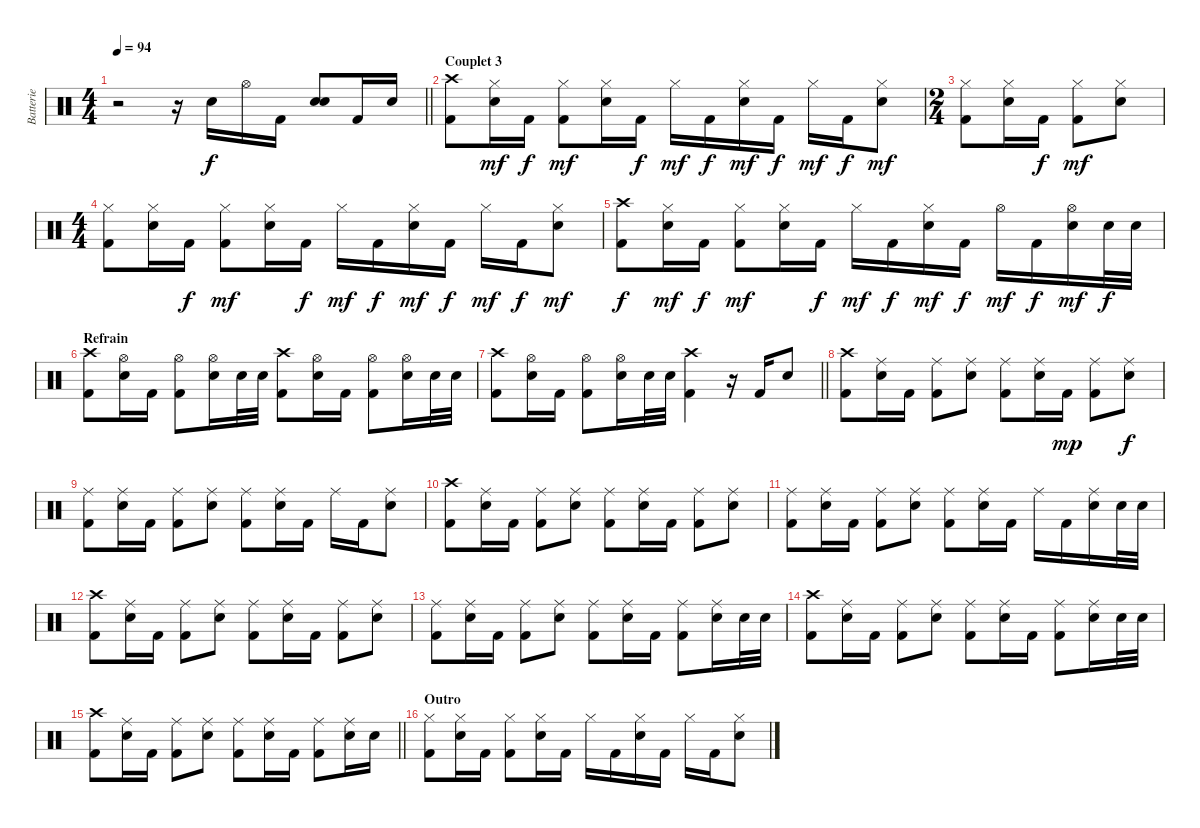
\track ("Batterie" "Batterie") {instrument percussion}
\staff {score}
\articulation defaults
\ts (4 4)
\tempo 94
\clef neutral
\barLineRight lightlight
\ks c
r.2{dy f} r.16 "Electric Snare (hit)".16 "Hi-Hat (open)".16 "Kick (hit) 2".16 ("Electric Snare (hit)" "Electric Snare (hit)").8{bd 120} "Kick (hit) 2".16 "Electric Snare (hit)".16 |
\section ("" "Couplet 3")
("Crash high (hit)" "Kick (hit) 2").8 ("Hi-Hat (closed)" "Electric Snare (hit)").16{dy mf} "Kick (hit) 2".16{dy f} ("Hi-Hat (closed)" "Kick (hit) 2").8{dy mf} ("Hi-Hat (closed)" "Electric Snare (hit)").16 "Kick (hit) 2".16{dy f} "Hi-Hat (closed)".16{dy mf} "Kick (hit) 2".16{dy f} ("Hi-Hat (closed)" "Electric Snare (hit)").16{dy mf} "Kick (hit) 2".16{dy f} "Hi-Hat (closed)".16{dy mf} "Kick (hit) 2".16{dy f} ("Hi-Hat (closed)" "Electric Snare (hit)").8{dy mf} |
\ts (2 4)
("Hi-Hat (closed)" "Kick (hit) 2").8 ("Hi-Hat (closed)" "Electric Snare (hit)").16 "Kick (hit) 2".16{dy f} ("Hi-Hat (closed)" "Kick (hit) 2").8{dy mf} ("Hi-Hat (closed)" "Electric Snare (hit)").8 |
\ts (4 4)
("Hi-Hat (closed)" "Kick (hit) 2").8 ("Hi-Hat (closed)" "Electric Snare (hit)").16 "Kick (hit) 2".16{dy f} ("Hi-Hat (closed)" "Kick (hit) 2").8{dy mf} ("Hi-Hat (closed)" "Electric Snare (hit)").16 "Kick (hit) 2".16{dy f} "Hi-Hat (closed)".16{dy mf} "Kick (hit) 2".16{dy f} ("Hi-Hat (closed)" "Electric Snare (hit)").16{dy mf} "Kick (hit) 2".16{dy f} "Hi-Hat (closed)".16{dy mf} "Kick (hit) 2".16{dy f} ("Hi-Hat (closed)" "Electric Snare (hit)").8{dy mf} |
("Crash high (hit)" "Kick (hit) 2").8{dy f} ("Hi-Hat (closed)" "Electric Snare (hit)").16{dy mf} "Kick (hit) 2".16{dy f} ("Hi-Hat (closed)" "Kick (hit) 2").8{dy mf} ("Hi-Hat (closed)" "Electric Snare (hit)").16 "Kick (hit) 2".16{dy f} "Hi-Hat (closed)".16{dy mf} "Kick (hit) 2".16{dy f} ("Hi-Hat (closed)" "Electric Snare (hit)").16{dy mf} "Kick (hit) 2".16{dy f} "Hi-Hat (open)".16{dy mf} "Kick (hit) 2".16{dy f} ("Hi-Hat (open)" "Electric Snare (hit)").16{dy mf} "Electric Snare (hit)".32{dy f} "Electric Snare (hit)".32 |
\section ("" "Refrain")
("Crash high (hit)" "Kick (hit) 2").8 ("Hi-Hat (open)" "Electric Snare (hit)").16 "Kick (hit) 2".16 ("Hi-Hat (open)" "Kick (hit) 2").8 ("Hi-Hat (open)" "Electric Snare (hit)").16 "Electric Snare (hit)".32 "Electric Snare (hit)".32 ("Crash high (hit)" "Kick (hit) 2").8 ("Hi-Hat (open)" "Electric Snare (hit)").16 "Kick (hit) 2".16 ("Hi-Hat (open)" "Kick (hit) 2").8 ("Hi-Hat (open)" "Electric Snare (hit)").16 "Electric Snare (hit)".32 "Electric Snare (hit)".32 |
\barLineRight lightlight
("Crash high (hit)" "Kick (hit) 2").8 ("Hi-Hat (open)" "Electric Snare (hit)").16 "Kick (hit) 2".16 ("Hi-Hat (open)" "Kick (hit) 2").8 ("Hi-Hat (open)" "Electric Snare (hit)").16 "Electric Snare (hit)".32 "Electric Snare (hit)".32 ("Crash high (hit)" "Kick (hit) 2").4 r.16 "Kick (hit) 2".16 "Electric Snare (hit)".8 |
("Crash high (hit)" "Kick (hit) 2").8 ("Ride (middle)" "Electric Snare (hit)").16 "Kick (hit) 2".16 ("Ride (middle)" "Kick (hit) 2").8 ("Ride (middle)" "Electric Snare (hit)").8 ("Ride (middle)" "Kick (hit) 2").8 ("Ride (middle)" "Electric Snare (hit)").16 "Kick (hit) 2".16{dy mp} ("Ride (middle)" "Kick (hit) 2").8 ("Ride (middle)" "Electric Snare (hit)").8{dy f} |
("Ride (middle)" "Kick (hit) 2").8 ("Ride (middle)" "Electric Snare (hit)").16 "Kick (hit) 2".16 ("Ride (middle)" "Kick (hit) 2").8 ("Ride (middle)" "Electric Snare (hit)").8 ("Ride (middle)" "Kick (hit) 2").8 ("Ride (middle)" "Electric Snare (hit)").16 "Kick (hit) 2".16 "Ride (middle)".16 "Kick (hit) 2".16 ("Ride (middle)" "Electric Snare (hit)").8 |
("Crash high (hit)" "Kick (hit) 2").8 ("Ride (middle)" "Electric Snare (hit)").16 "Kick (hit) 2".16 ("Ride (middle)" "Kick (hit) 2").8 ("Ride (middle)" "Electric Snare (hit)").8 ("Ride (middle)" "Kick (hit) 2").8 ("Ride (middle)" "Electric Snare (hit)").16 "Kick (hit) 2".16 ("Ride (middle)" "Kick (hit) 2").8 ("Ride (middle)" "Electric Snare (hit)").8 |
("Ride (middle)" "Kick (hit) 2").8 ("Ride (middle)" "Electric Snare (hit)").16 "Kick (hit) 2".16 ("Ride (middle)" "Kick (hit) 2").8 ("Ride (middle)" "Electric Snare (hit)").8 ("Ride (middle)" "Kick (hit) 2").8 ("Ride (middle)" "Electric Snare (hit)").16 "Kick (hit) 2".16 "Ride (middle)".16 "Kick (hit) 2".16 ("Ride (middle)" "Electric Snare (hit)").16 "Electric Snare (hit)".32 "Electric Snare (hit)".32 |
("Crash high (hit)" "Kick (hit) 2").8 ("Ride (middle)" "Electric Snare (hit)").16 "Kick (hit) 2".16 ("Ride (middle)" "Kick (hit) 2").8 ("Ride (middle)" "Electric Snare (hit)").8 ("Ride (middle)" "Kick (hit) 2").8 ("Ride (middle)" "Electric Snare (hit)").16 "Kick (hit) 2".16 ("Ride (middle)" "Kick (hit) 2").8 ("Ride (middle)" "Electric Snare (hit)").8 |
("Ride (middle)" "Kick (hit) 2").8 ("Ride (middle)" "Electric Snare (hit)").16 "Kick (hit) 2".16 ("Ride (middle)" "Kick (hit) 2").8 ("Ride (middle)" "Electric Snare (hit)").8 ("Ride (middle)" "Kick (hit) 2").8 ("Ride (middle)" "Electric Snare (hit)").16 "Kick (hit) 2".16 ("Ride (middle)" "Kick (hit) 2").8 ("Ride (middle)" "Electric Snare (hit)").16 "Electric Snare (hit)".32 "Electric Snare (hit)".32 |
("Crash high (hit)" "Kick (hit) 2").8 ("Ride (middle)" "Electric Snare (hit)").16 "Kick (hit) 2".16 ("Ride (middle)" "Kick (hit) 2").8 ("Ride (middle)" "Electric Snare (hit)").8 ("Ride (middle)" "Kick (hit) 2").8 ("Ride (middle)" "Electric Snare (hit)").16 "Kick (hit) 2".16 ("Ride (middle)" "Kick (hit) 2").8 ("Ride (middle)" "Electric Snare (hit)").16 "Electric Snare (hit)".32 "Electric Snare (hit)".32 |
\barLineRight lightlight
("Crash high (hit)" "Kick (hit) 2").8 ("Ride (middle)" "Electric Snare (hit)").16 "Kick (hit) 2".16 ("Ride (middle)" "Kick (hit) 2").8 ("Ride (middle)" "Electric Snare (hit)").8 ("Ride (middle)" "Kick (hit) 2").8 ("Ride (middle)" "Electric Snare (hit)").16 "Kick (hit) 2".16 ("Ride (middle)" "Kick (hit) 2").8 ("Ride (middle)" "Electric Snare (hit)").16 "Electric Snare (hit)".16 |
\section ("" "Outro")
("Hi-Hat (closed)" "Kick (hit) 2").8 ("Hi-Hat (closed)" "Electric Snare (hit)").16 "Kick (hit) 2".16 ("Hi-Hat (closed)" "Kick (hit) 2").8 ("Hi-Hat (closed)" "Electric Snare (hit)").16 "Kick (hit) 2".16 "Hi-Hat (closed)".16 "Kick (hit) 2".16 ("Hi-Hat (closed)" "Electric Snare (hit)").16 "Kick (hit) 2".16 "Hi-Hat (closed)".16 "Kick (hit) 2".16 ("Hi-Hat (closed)" "Electric Snare (hit)").8
